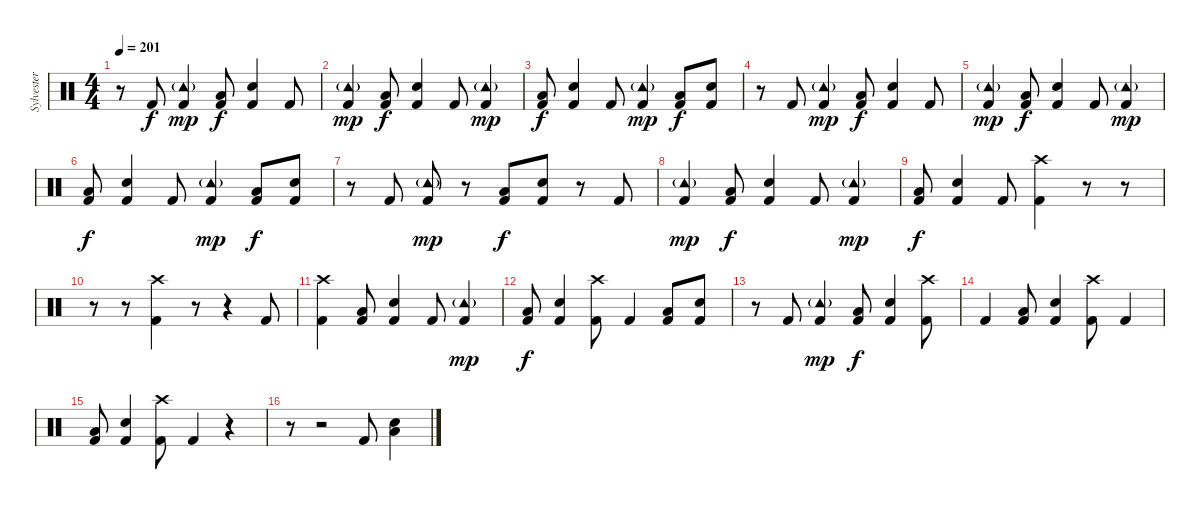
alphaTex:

\track ("Sylvester Schlegel" "Sylvester ") {instrument percussion}
\staff {score}
\articulation defaults
\ts (4 4)
\tempo 201
\clef neutral
\ks c
r.8{dy f} "Kick (hit) 2".8 ("Tambourine (hit)"{g} "Kick (hit) 2").4{dy mp} ("Low Floor Tom (hit)" "Kick (hit) 2").8{dy f} ("Snare (hit) 2" "Kick (hit) 2").4 "Kick (hit) 2".8 |
("Tambourine (hit)"{g} "Kick (hit) 2").4{dy mp} ("Low Floor Tom (hit)" "Kick (hit) 2").8{dy f} ("Snare (hit) 2" "Kick (hit) 2").4 "Kick (hit) 2".8 ("Tambourine (hit)"{g} "Kick (hit) 2").4{dy mp} |
("Low Floor Tom (hit)" "Kick (hit) 2").8{dy f} ("Snare (hit) 2" "Kick (hit) 2").4 "Kick (hit) 2".8 ("Tambourine (hit)"{g} "Kick (hit) 2").4{dy mp} ("Low Floor Tom (hit)" "Kick (hit) 2").8{dy f} ("Snare (hit) 2" "Kick (hit) 2").8 |
r.8 "Kick (hit) 2".8 ("Tambourine (hit)"{g} "Kick (hit) 2").4{dy mp} ("Low Floor Tom (hit)" "Kick (hit) 2").8{dy f} ("Snare (hit) 2" "Kick (hit) 2").4 "Kick (hit) 2".8 |
("Tambourine (hit)"{g} "Kick (hit) 2").4{dy mp} ("Low Floor Tom (hit)" "Kick (hit) 2").8{dy f} ("Snare (hit) 2" "Kick (hit) 2").4 "Kick (hit) 2".8 ("Tambourine (hit)"{g} "Kick (hit) 2").4{dy mp} |
("Low Floor Tom (hit)" "Kick (hit) 2").8{dy f} ("Snare (hit) 2" "Kick (hit) 2").4 "Kick (hit) 2".8 ("Tambourine (hit)"{g} "Kick (hit) 2").4{dy mp} ("Low Floor Tom (hit)" "Kick (hit) 2").8{dy f} ("Snare (hit) 2" "Kick (hit) 2").8 |
r.8 "Kick (hit) 2".8 ("Tambourine (hit)"{g} "Kick (hit) 2").8{dy mp} r.8 ("Low Floor Tom (hit)" "Kick (hit) 2").8{dy f} ("Snare (hit) 2" "Kick (hit) 2").8 r.8 "Kick (hit) 2".8 |
("Tambourine (hit)"{g} "Kick (hit) 2").4{dy mp} ("Low Floor Tom (hit)" "Kick (hit) 2").8{dy f} ("Snare (hit) 2" "Kick (hit) 2").4 "Kick (hit) 2".8 ("Tambourine (hit)"{g} "Kick (hit) 2").4{dy mp} |
("Low Floor Tom (hit)" "Kick (hit) 2").8{dy f} ("Snare (hit) 2" "Kick (hit) 2").4 "Kick (hit) 2".8 ("Crash high (hit)" "Kick (hit) 2").4 r.8 r.8 |
r.8 r.8 ("Crash high (hit)" "Kick (hit) 2").4 r.8 r.4 "Kick (hit) 2".8 |
("Crash high (hit)" "Kick (hit) 2").4 ("Low Floor Tom (hit)" "Kick (hit) 2").8 ("Snare (hit) 2" "Kick (hit) 2").4 "Kick (hit) 2".8 ("Tambourine (hit)"{g} "Kick (hit) 2").4{dy mp} |
("Low Floor Tom (hit)" "Kick (hit) 2").8{dy f} ("Snare (hit) 2" "Kick (hit) 2").4 ("Crash high (hit)" "Kick (hit) 2").8 "Kick (hit) 2".4 ("Low Floor Tom (hit)" "Kick (hit) 2").8 ("Snare (hit) 2" "Kick (hit) 2").8 |
r.8 "Kick (hit) 2".8 ("Tambourine (hit)"{g} "Kick (hit) 2").4{dy mp} ("Low Floor Tom (hit)" "Kick (hit) 2").8{dy f} ("Snare (hit) 2" "Kick (hit) 2").4 ("Crash high (hit)" "Kick (hit) 2").8 |
"Kick (hit) 2".4 ("Low Floor Tom (hit)" "Kick (hit) 2").8 ("Snare (hit) 2" "Kick (hit) 2").4 ("Crash high (hit)" "Kick (hit) 2").8 "Kick (hit) 2".4 |
("Low Floor Tom (hit)" "Kick (hit) 2").8 ("Snare (hit) 2" "Kick (hit) 2").4 ("Crash high (hit)" "Kick (hit) 2").8 "Kick (hit) 2".4 r.4 |
r.8 r.2 "Kick (hit) 2".8 ("Low Tom (hit)" "Electric Snare (hit)").4
